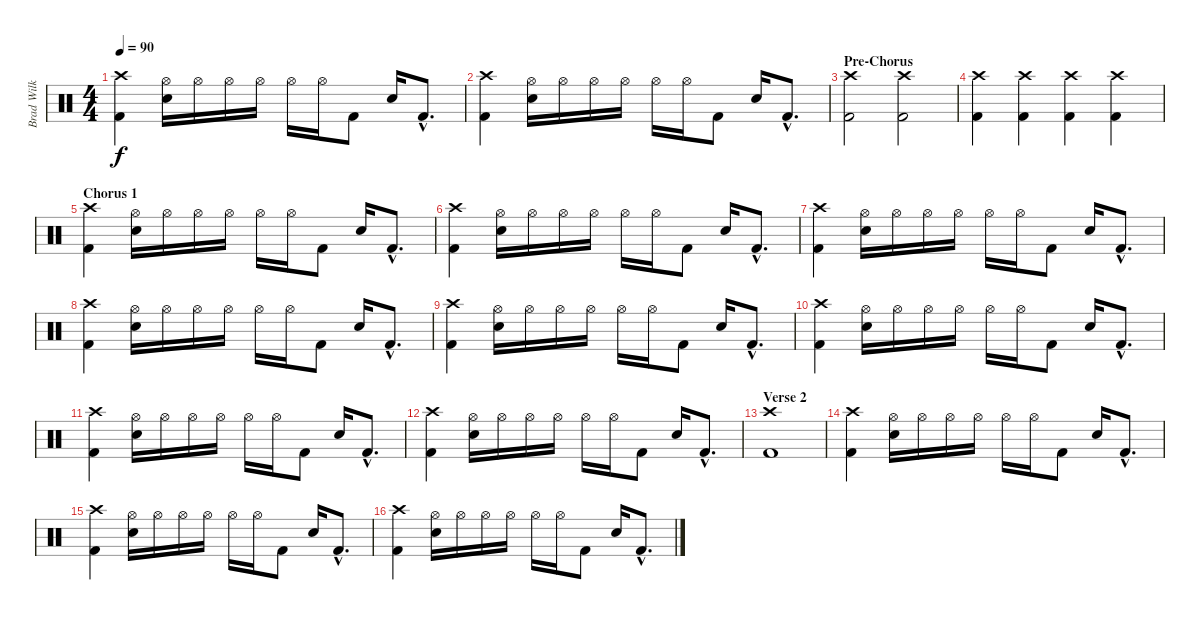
\track ("Brad Wilk / Drums" "Brad Wilk ") {instrument percussion}
\staff {score}
\articulation defaults
\ts (4 4)
\tempo 90
\clef neutral
\ks c
("Crash high (hit)" "Kick (hit) 2").4{dy f} ("Hi-Hat (open)" "Electric Snare (hit)").16 "Hi-Hat (open)".16 "Hi-Hat (open)".16 "Hi-Hat (open)".16 "Hi-Hat (open)".16 "Hi-Hat (open)".16 "Kick (hit) 2".8 "Electric Snare (hit)".16 "Kick (hit) 2"{hac}.8{d} |
("Crash high (hit)" "Kick (hit) 2").4 ("Hi-Hat (open)" "Electric Snare (hit)").16 "Hi-Hat (open)".16 "Hi-Hat (open)".16 "Hi-Hat (open)".16 "Hi-Hat (open)".16 "Hi-Hat (open)".16 "Kick (hit) 2".8 "Electric Snare (hit)".16 "Kick (hit) 2"{hac}.8{d} |
\section ("" "Pre-Chorus")
("Crash high (hit)" "Kick (hit) 2").2 ("Crash high (hit)" "Kick (hit) 2").2 |
("Crash high (hit)" "Kick (hit) 2").4 ("Crash high (hit)" "Kick (hit) 2").4 ("Crash high (hit)" "Kick (hit) 2").4 ("Crash high (hit)" "Kick (hit) 2").4 |
\section ("" "Chorus 1")
("Crash high (hit)" "Kick (hit) 2").4 ("Hi-Hat (open)" "Electric Snare (hit)").16 "Hi-Hat (open)".16 "Hi-Hat (open)".16 "Hi-Hat (open)".16 "Hi-Hat (open)".16 "Hi-Hat (open)".16 "Kick (hit) 2".8 "Electric Snare (hit)".16 "Kick (hit) 2"{hac}.8{d} |
("Crash high (hit)" "Kick (hit) 2").4 ("Hi-Hat (open)" "Electric Snare (hit)").16 "Hi-Hat (open)".16 "Hi-Hat (open)".16 "Hi-Hat (open)".16 "Hi-Hat (open)".16 "Hi-Hat (open)".16 "Kick (hit) 2".8 "Electric Snare (hit)".16 "Kick (hit) 2"{hac}.8{d} |
("Crash high (hit)" "Kick (hit) 2").4 ("Hi-Hat (open)" "Electric Snare (hit)").16 "Hi-Hat (open)".16 "Hi-Hat (open)".16 "Hi-Hat (open)".16 "Hi-Hat (open)".16 "Hi-Hat (open)".16 "Kick (hit) 2".8 "Electric Snare (hit)".16 "Kick (hit) 2"{hac}.8{d} |
("Crash high (hit)" "Kick (hit) 2").4 ("Hi-Hat (open)" "Electric Snare (hit)").16 "Hi-Hat (open)".16 "Hi-Hat (open)".16 "Hi-Hat (open)".16 "Hi-Hat (open)".16 "Hi-Hat (open)".16 "Kick (hit) 2".8 "Electric Snare (hit)".16 "Kick (hit) 2"{hac}.8{d} |
("Crash high (hit)" "Kick (hit) 2").4 ("Hi-Hat (open)" "Electric Snare (hit)").16 "Hi-Hat (open)".16 "Hi-Hat (open)".16 "Hi-Hat (open)".16 "Hi-Hat (open)".16 "Hi-Hat (open)".16 "Kick (hit) 2".8 "Electric Snare (hit)".16 "Kick (hit) 2"{hac}.8{d} |
("Crash high (hit)" "Kick (hit) 2").4 ("Hi-Hat (open)" "Electric Snare (hit)").16 "Hi-Hat (open)".16 "Hi-Hat (open)".16 "Hi-Hat (open)".16 "Hi-Hat (open)".16 "Hi-Hat (open)".16 "Kick (hit) 2".8 "Electric Snare (hit)".16 "Kick (hit) 2"{hac}.8{d} |
("Crash high (hit)" "Kick (hit) 2").4 ("Hi-Hat (open)" "Electric Snare (hit)").16 "Hi-Hat (open)".16 "Hi-Hat (open)".16 "Hi-Hat (open)".16 "Hi-Hat (open)".16 "Hi-Hat (open)".16 "Kick (hit) 2".8 "Electric Snare (hit)".16 "Kick (hit) 2"{hac}.8{d} |
("Crash high (hit)" "Kick (hit) 2").4 ("Hi-Hat (open)" "Electric Snare (hit)").16 "Hi-Hat (open)".16 "Hi-Hat (open)".16 "Hi-Hat (open)".16 "Hi-Hat (open)".16 "Hi-Hat (open)".16 "Kick (hit) 2".8 "Electric Snare (hit)".16 "Kick (hit) 2"{hac}.8{d} |
\section ("" "Verse 2")
("Crash high (hit)" "Kick (hit) 2").1 |
("Crash high (hit)" "Kick (hit) 2").4 ("Hi-Hat (open)" "Electric Snare (hit)").16 "Hi-Hat (open)".16 "Hi-Hat (open)".16 "Hi-Hat (open)".16 "Hi-Hat (open)".16 "Hi-Hat (open)".16 "Kick (hit) 2".8 "Electric Snare (hit)".16 "Kick (hit) 2"{hac}.8{d} |
("Crash high (hit)" "Kick (hit) 2").4 ("Hi-Hat (open)" "Electric Snare (hit)").16 "Hi-Hat (open)".16 "Hi-Hat (open)".16 "Hi-Hat (open)".16 "Hi-Hat (open)".16 "Hi-Hat (open)".16 "Kick (hit) 2".8 "Electric Snare (hit)".16 "Kick (hit) 2"{hac}.8{d} |
("Crash high (hit)" "Kick (hit) 2").4 ("Hi-Hat (open)" "Electric Snare (hit)").16 "Hi-Hat (open)".16 "Hi-Hat (open)".16 "Hi-Hat (open)".16 "Hi-Hat (open)".16 "Hi-Hat (open)".16 "Kick (hit) 2".8 "Electric Snare (hit)".16 "Kick (hit) 2"{hac}.8{d}
